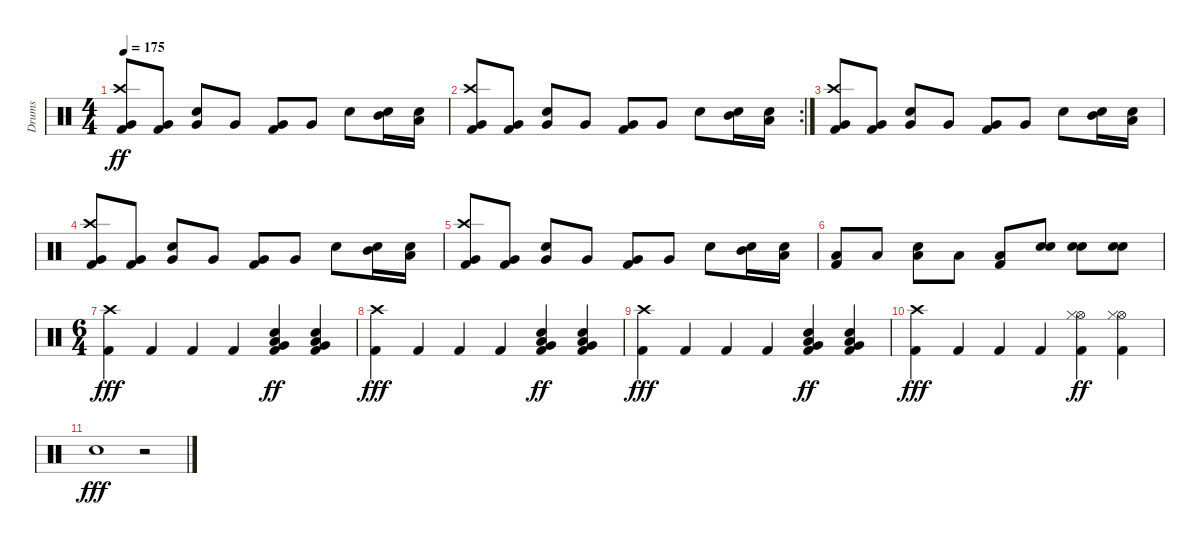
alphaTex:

\track ("Drums" "Drums") {instrument percussion}
\staff {score}
\articulation defaults
\ts (4 4)
\tempo 175
\clef neutral
\ks c
("Very Low Tom (hit)" "Crash high (hit)" "Kick (hit) 2").8{dy ff} ("Very Low Tom (hit)" "Kick (hit) 2").8 ("Very Low Tom (hit)" "Snare (hit) 2").8 "Very Low Tom (hit)".8 ("Very Low Tom (hit)" "Kick (hit) 2").8 "Very Low Tom (hit)".8 "Snare (hit) 2".8 ("Mid Tom (hit)" "Snare (hit) 2").16 ("Low Tom (hit)" "Snare (hit) 2").16 |
\rc 2
("Very Low Tom (hit)" "Crash high (hit)" "Kick (hit) 2").8 ("Very Low Tom (hit)" "Kick (hit) 2").8 ("Very Low Tom (hit)" "Snare (hit) 2").8 "Very Low Tom (hit)".8 ("Very Low Tom (hit)" "Kick (hit) 2").8 "Very Low Tom (hit)".8 "Snare (hit) 2".8 ("Mid Tom (hit)" "Snare (hit) 2").16 ("Low Tom (hit)" "Snare (hit) 2").16 |
("Very Low Tom (hit)" "Crash high (hit)" "Kick (hit) 2").8 ("Very Low Tom (hit)" "Kick (hit) 2").8 ("Very Low Tom (hit)" "Snare (hit) 2").8 "Very Low Tom (hit)".8 ("Very Low Tom (hit)" "Kick (hit) 2").8 "Very Low Tom (hit)".8 "Snare (hit) 2".8 ("Mid Tom (hit)" "Snare (hit) 2").16 ("Low Tom (hit)" "Snare (hit) 2").16 |
("Very Low Tom (hit)" "Crash high (hit)" "Kick (hit) 2").8 ("Very Low Tom (hit)" "Kick (hit) 2").8 ("Very Low Tom (hit)" "Snare (hit) 2").8 "Very Low Tom (hit)".8 ("Very Low Tom (hit)" "Kick (hit) 2").8 "Very Low Tom (hit)".8 "Snare (hit) 2".8 ("Mid Tom (hit)" "Snare (hit) 2").16 ("Low Tom (hit)" "Snare (hit) 2").16 |
("Very Low Tom (hit)" "Crash high (hit)" "Kick (hit) 2").8 ("Very Low Tom (hit)" "Kick (hit) 2").8 ("Very Low Tom (hit)" "Snare (hit) 2").8 "Very Low Tom (hit)".8 ("Very Low Tom (hit)" "Kick (hit) 2").8 "Very Low Tom (hit)".8 "Snare (hit) 2".8 ("Mid Tom (hit)" "Snare (hit) 2").16 ("Low Tom (hit)" "Snare (hit) 2").16 |
("Low Floor Tom (hit)" "Kick (hit) 2").8 "Low Floor Tom (hit)".8 ("Low Floor Tom (hit)" "Snare (hit) 2").8 "Low Floor Tom (hit)".8 ("Low Floor Tom (hit)" "Kick (hit) 2").8 ("Snare (hit) 2" "Snare (hit) 2").8 ("Snare (hit) 2" "Snare (hit) 2").8 ("Snare (hit) 2" "Snare (hit) 2").8 |
\ts (6 4)
("Crash high (hit)" "Kick (hit) 2").4{dy fff} "Kick (hit) 2".4 "Kick (hit) 2".4 "Kick (hit) 2".4 ("Low Floor Tom (hit)" "Very Low Tom (hit)" "Snare (hit) 2" "Kick (hit) 2").4{dy ff} ("Low Floor Tom (hit)" "Very Low Tom (hit)" "Snare (hit) 2" "Kick (hit) 2").4 |
("Crash high (hit)" "Kick (hit) 2").4{dy fff} "Kick (hit) 2".4 "Kick (hit) 2".4 "Kick (hit) 2".4 ("Low Floor Tom (hit)" "Very Low Tom (hit)" "Snare (hit) 2" "Kick (hit) 2").4{dy ff} ("Low Floor Tom (hit)" "Very Low Tom (hit)" "Snare (hit) 2" "Kick (hit) 2").4 |
("Crash high (hit)" "Kick (hit) 2").4{dy fff} "Kick (hit) 2".4 "Kick (hit) 2".4 "Kick (hit) 2".4 ("Low Floor Tom (hit)" "Very Low Tom (hit)" "Snare (hit) 2" "Kick (hit) 2").4{dy ff} ("Low Floor Tom (hit)" "Very Low Tom (hit)" "Snare (hit) 2" "Kick (hit) 2").4 |
("Crash high (hit)" "Kick (hit) 2").4{dy fff} "Kick (hit) 2".4 "Kick (hit) 2".4 "Kick (hit) 2".4 ("Hi-Hat (open)" "Hi-Hat (closed)" "Kick (hit) 2").4{dy ff} ("Hi-Hat (open)" "Hi-Hat (closed)" "Kick (hit) 2").4 |
"Snare (hit) 2".1{dy fff} r.2
